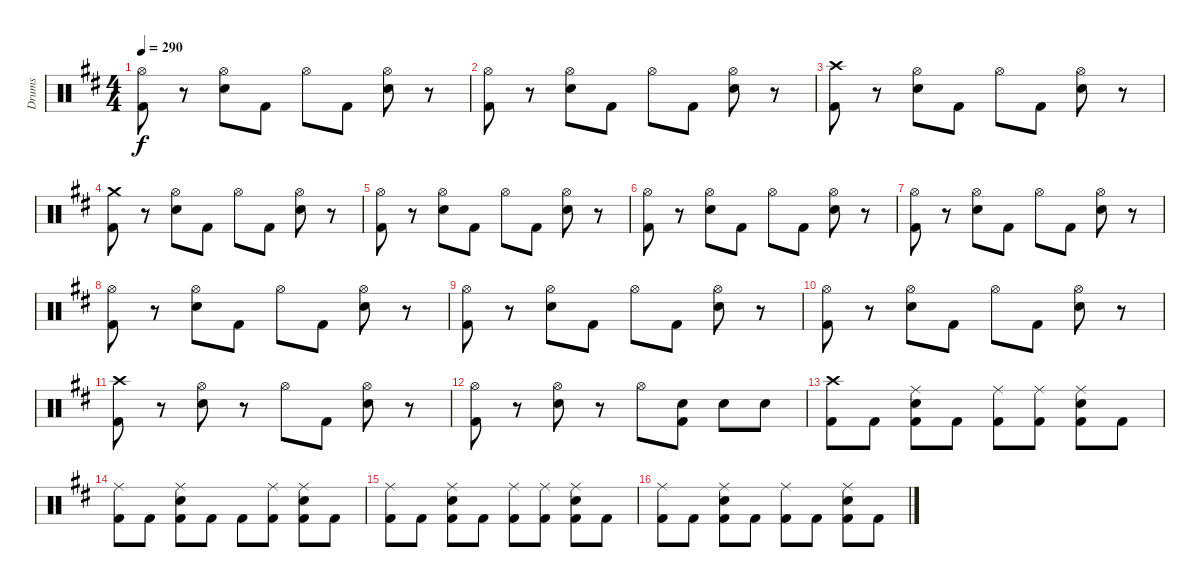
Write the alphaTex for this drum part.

\track ("Drums" "Drums") {instrument percussion}
\staff {score}
\articulation defaults
\ts (4 4)
\tempo 290
\clef neutral
\ks d
("Hi-Hat (open)" "Kick (hit) 2").8{dy f} r.8 ("Hi-Hat (open)" "Electric Snare (hit)").8 "Kick (hit) 2".8 "Hi-Hat (open)".8 "Kick (hit) 2".8 ("Hi-Hat (open)" "Electric Snare (hit)").8 r.8 |
("Hi-Hat (open)" "Kick (hit) 2").8 r.8 ("Hi-Hat (open)" "Electric Snare (hit)").8 "Kick (hit) 2".8 "Hi-Hat (open)".8 "Kick (hit) 2".8 ("Hi-Hat (open)" "Electric Snare (hit)").8 r.8 |
("Crash high (hit)" "Kick (hit) 2").8 r.8 ("Hi-Hat (open)" "Electric Snare (hit)").8 "Kick (hit) 2".8 "Hi-Hat (open)".8 "Kick (hit) 2".8 ("Hi-Hat (open)" "Electric Snare (hit)").8 r.8 |
("Crash medium (hit)" "Kick (hit) 2").8 r.8 ("Hi-Hat (open)" "Electric Snare (hit)").8 "Kick (hit) 2".8 "Hi-Hat (open)".8 "Kick (hit) 2".8 ("Hi-Hat (open)" "Electric Snare (hit)").8 r.8 |
("Hi-Hat (open)" "Kick (hit) 2").8 r.8 ("Hi-Hat (open)" "Electric Snare (hit)").8 "Kick (hit) 2".8 "Hi-Hat (open)".8 "Kick (hit) 2".8 ("Hi-Hat (open)" "Electric Snare (hit)").8 r.8 |
("Hi-Hat (open)" "Kick (hit) 2").8 r.8 ("Hi-Hat (open)" "Electric Snare (hit)").8 "Kick (hit) 2".8 "Hi-Hat (open)".8 "Kick (hit) 2".8 ("Hi-Hat (open)" "Electric Snare (hit)").8 r.8 |
("Hi-Hat (open)" "Kick (hit) 2").8 r.8 ("Hi-Hat (open)" "Electric Snare (hit)").8 "Kick (hit) 2".8 "Hi-Hat (open)".8 "Kick (hit) 2".8 ("Hi-Hat (open)" "Electric Snare (hit)").8 r.8 |
("Hi-Hat (open)" "Kick (hit) 2").8 r.8 ("Hi-Hat (open)" "Electric Snare (hit)").8 "Kick (hit) 2".8 "Hi-Hat (open)".8 "Kick (hit) 2".8 ("Hi-Hat (open)" "Electric Snare (hit)").8 r.8 |
("Hi-Hat (open)" "Kick (hit) 2").8 r.8 ("Hi-Hat (open)" "Electric Snare (hit)").8 "Kick (hit) 2".8 "Hi-Hat (open)".8 "Kick (hit) 2".8 ("Hi-Hat (open)" "Electric Snare (hit)").8 r.8 |
("Hi-Hat (open)" "Kick (hit) 2").8 r.8 ("Hi-Hat (open)" "Electric Snare (hit)").8 "Kick (hit) 2".8 "Hi-Hat (open)".8 "Kick (hit) 2".8 ("Hi-Hat (open)" "Electric Snare (hit)").8 r.8 |
("Crash high (hit)" "Kick (hit) 2").8 r.8 ("Hi-Hat (open)" "Electric Snare (hit)").8 r.8 "Hi-Hat (open)".8 "Kick (hit) 2".8 ("Hi-Hat (open)" "Electric Snare (hit)").8 r.8 |
("Hi-Hat (open)" "Kick (hit) 2").8 r.8 ("Hi-Hat (open)" "Electric Snare (hit)").8 r.8 "Hi-Hat (open)".8 ("Electric Snare (hit)" "Kick (hit) 2").8 "Electric Snare (hit)".8 "Electric Snare (hit)".8 |
("Crash high (hit)" "Kick (hit) 2").8 "Kick (hit) 2".8 ("Ride (middle)" "Electric Snare (hit)" "Kick (hit) 2").8 "Kick (hit) 2".8 ("Ride (middle)" "Kick (hit) 2").8 ("Ride (middle)" "Kick (hit) 2").8 ("Ride (middle)" "Electric Snare (hit)" "Kick (hit) 2").8 "Kick (hit) 2".8 |
("Ride (middle)" "Kick (hit) 2").8 "Kick (hit) 2".8 ("Ride (middle)" "Electric Snare (hit)" "Kick (hit) 2").8 "Kick (hit) 2".8 "Kick (hit) 2".8 ("Ride (middle)" "Kick (hit) 2").8 ("Ride (middle)" "Electric Snare (hit)" "Kick (hit) 2").8 "Kick (hit) 2".8 |
("Ride (middle)" "Kick (hit) 2").8 "Kick (hit) 2".8 ("Ride (middle)" "Electric Snare (hit)" "Kick (hit) 2").8 "Kick (hit) 2".8 ("Ride (middle)" "Kick (hit) 2").8 ("Ride (middle)" "Kick (hit) 2").8 ("Ride (middle)" "Electric Snare (hit)" "Kick (hit) 2").8 "Kick (hit) 2".8 |
("Ride (middle)" "Kick (hit) 2").8 "Kick (hit) 2".8 ("Ride (middle)" "Electric Snare (hit)" "Kick (hit) 2").8 "Kick (hit) 2".8 ("Ride (middle)" "Kick (hit) 2").8 "Kick (hit) 2".8 ("Ride (middle)" "Electric Snare (hit)" "Kick (hit) 2").8 "Kick (hit) 2".8
